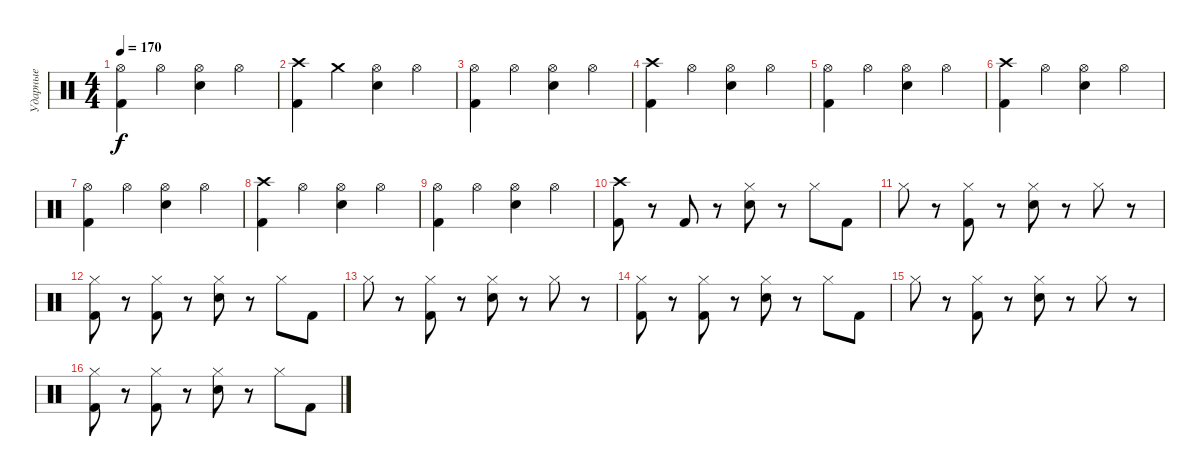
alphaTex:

\track ("Ударные" "Ударные") {instrument percussion}
\staff {score}
\articulation defaults
\ts (4 4)
\tempo 170
\clef neutral
\ks c
("Hi-Hat (open)" "Kick (hit) 2").4{dy f} "Hi-Hat (open)".4 ("Hi-Hat (open)" "Electric Snare (hit)").4 "Hi-Hat (open)".4 |
("Crash high (hit)" "Kick (hit) 2").4 "Crash medium (hit)".4 ("Hi-Hat (open)" "Electric Snare (hit)").4 "Hi-Hat (open)".4 |
("Hi-Hat (open)" "Kick (hit) 2").4 "Hi-Hat (open)".4 ("Hi-Hat (open)" "Electric Snare (hit)").4 "Hi-Hat (open)".4 |
("Crash high (hit)" "Kick (hit) 2").4 "Hi-Hat (open)".4 ("Hi-Hat (open)" "Electric Snare (hit)").4 "Hi-Hat (open)".4 |
("Hi-Hat (open)" "Kick (hit) 2").4 "Hi-Hat (open)".4 ("Hi-Hat (open)" "Electric Snare (hit)").4 "Hi-Hat (open)".4 |
("Crash high (hit)" "Kick (hit) 2").4 "Hi-Hat (open)".4 ("Hi-Hat (open)" "Electric Snare (hit)").4 "Hi-Hat (open)".4 |
("Hi-Hat (open)" "Kick (hit) 2").4 "Hi-Hat (open)".4 ("Hi-Hat (open)" "Electric Snare (hit)").4 "Hi-Hat (open)".4 |
("Crash high (hit)" "Kick (hit) 2").4 "Hi-Hat (open)".4 ("Hi-Hat (open)" "Electric Snare (hit)").4 "Hi-Hat (open)".4 |
("Hi-Hat (open)" "Kick (hit) 2").4 "Hi-Hat (open)".4 ("Hi-Hat (open)" "Electric Snare (hit)").4 "Hi-Hat (open)".4 |
("Crash high (hit)" "Kick (hit) 2").8 r.8 "Kick (hit) 2".8 r.8 ("Hi-Hat (closed)" "Electric Snare (hit)").8 r.8 "Hi-Hat (closed)".8 "Kick (hit) 2".8 |
"Hi-Hat (closed)".8 r.8 ("Hi-Hat (closed)" "Kick (hit) 2").8 r.8 ("Hi-Hat (closed)" "Electric Snare (hit)").8 r.8 "Hi-Hat (closed)".8 r.8 |
("Hi-Hat (closed)" "Kick (hit) 2").8 r.8 ("Hi-Hat (closed)" "Kick (hit) 2").8 r.8 ("Hi-Hat (closed)" "Electric Snare (hit)").8 r.8 "Hi-Hat (closed)".8 "Kick (hit) 2".8 |
"Hi-Hat (closed)".8 r.8 ("Hi-Hat (closed)" "Kick (hit) 2").8 r.8 ("Hi-Hat (closed)" "Electric Snare (hit)").8 r.8 "Hi-Hat (closed)".8 r.8 |
("Hi-Hat (closed)" "Kick (hit) 2").8 r.8 ("Hi-Hat (closed)" "Kick (hit) 2").8 r.8 ("Hi-Hat (closed)" "Electric Snare (hit)").8 r.8 "Hi-Hat (closed)".8 "Kick (hit) 2".8 |
"Hi-Hat (closed)".8 r.8 ("Hi-Hat (closed)" "Kick (hit) 2").8 r.8 ("Hi-Hat (closed)" "Electric Snare (hit)").8 r.8 "Hi-Hat (closed)".8 r.8 |
("Hi-Hat (closed)" "Kick (hit) 2").8 r.8 ("Hi-Hat (closed)" "Kick (hit) 2").8 r.8 ("Hi-Hat (closed)" "Electric Snare (hit)").8 r.8 "Hi-Hat (closed)".8 "Kick (hit) 2".8
